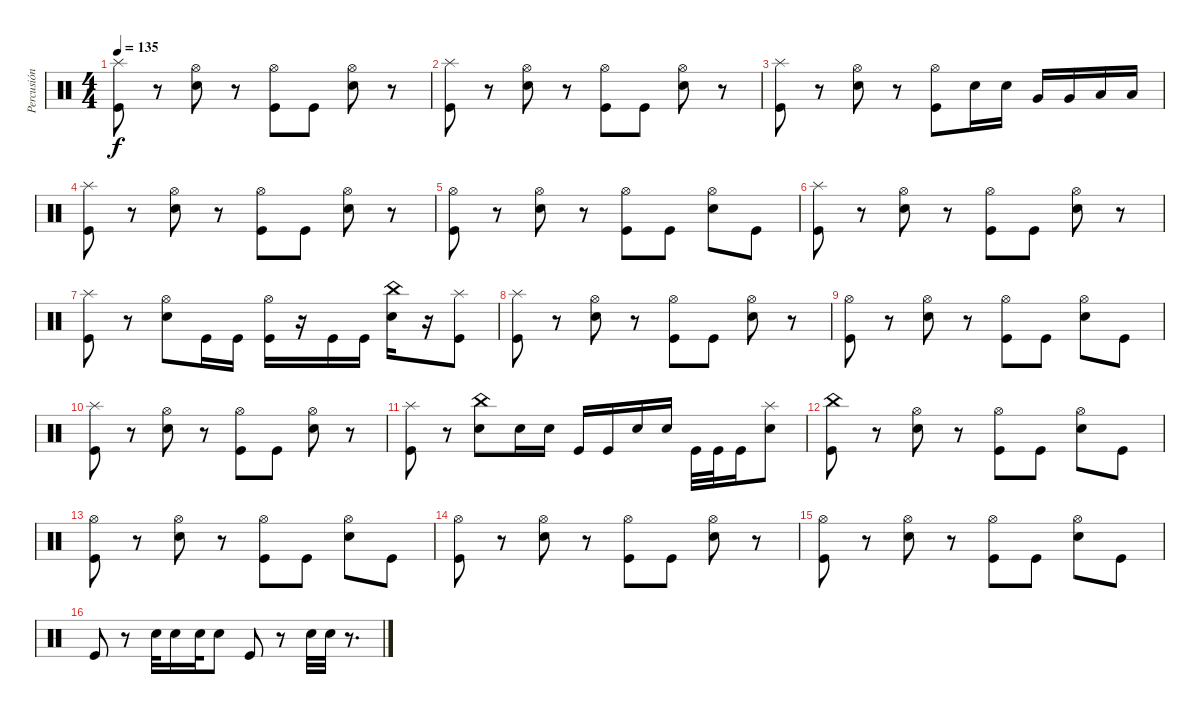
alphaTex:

\track ("Percusión" "Percusión") {instrument percussion}
\staff {score}
\articulation defaults
\ts (4 4)
\tempo 135
\clef neutral
\ks c
("Kick (hit)" "Splash (hit)").8{dy f} r.8 ("Electric Snare (hit)" "Hi-Hat (open)").8 r.8 ("Kick (hit)" "Hi-Hat (open)").8 "Kick (hit)".8 ("Electric Snare (hit)" "Hi-Hat (open)").8 r.8 |
("Kick (hit)" "Splash (hit)").8 r.8 ("Electric Snare (hit)" "Hi-Hat (open)").8 r.8 ("Kick (hit)" "Hi-Hat (open)").8 "Kick (hit)".8 ("Electric Snare (hit)" "Hi-Hat (open)").8 r.8 |
("Kick (hit)" "Splash (hit)").8 r.8 ("Electric Snare (hit)" "Hi-Hat (open)").8 r.8 ("Kick (hit)" "Hi-Hat (open)").8 "Electric Snare (hit)".16 "Electric Snare (hit)".16 "Very Low Tom (hit)".16 "Very Low Tom (hit)".16 "Low Tom (hit)".16 "Low Tom (hit)".16 |
("Kick (hit)" "Splash (hit)").8 r.8 ("Electric Snare (hit)" "Hi-Hat (open)").8 r.8 ("Kick (hit)" "Hi-Hat (open)").8 "Kick (hit)".8 ("Electric Snare (hit)" "Hi-Hat (open)").8 r.8 |
("Kick (hit)" "Hi-Hat (open)").8 r.8 ("Electric Snare (hit)" "Hi-Hat (open)").8 r.8 ("Kick (hit)" "Hi-Hat (open)").8 "Kick (hit)".8 ("Electric Snare (hit)" "Hi-Hat (open)").8 "Kick (hit)".8 |
("Kick (hit)" "Splash (hit)").8 r.8 ("Electric Snare (hit)" "Hi-Hat (open)").8 r.8 ("Kick (hit)" "Hi-Hat (open)").8 "Kick (hit)".8 ("Electric Snare (hit)" "Hi-Hat (open)").8 r.8 |
("Kick (hit)" "Splash (hit)").8 r.8 ("Electric Snare (hit)" "Hi-Hat (open)").8 "Kick (hit)".16 "Kick (hit)".16 ("Kick (hit)" "Hi-Hat (open)").16 r.16 "Kick (hit)".16 "Kick (hit)".16 ("Electric Snare (hit)" "China (hit)").16 r.16 ("Kick (hit)" "Splash (hit)").8 |
("Kick (hit)" "Splash (hit)").8 r.8 ("Electric Snare (hit)" "Hi-Hat (open)").8 r.8 ("Kick (hit)" "Hi-Hat (open)").8 "Kick (hit)".8 ("Electric Snare (hit)" "Hi-Hat (open)").8 r.8 |
("Kick (hit)" "Hi-Hat (open)").8 r.8 ("Electric Snare (hit)" "Hi-Hat (open)").8 r.8 ("Kick (hit)" "Hi-Hat (open)").8 "Kick (hit)".8 ("Electric Snare (hit)" "Hi-Hat (open)").8 "Kick (hit)".8 |
("Kick (hit)" "Splash (hit)").8 r.8 ("Electric Snare (hit)" "Hi-Hat (open)").8 r.8 ("Kick (hit)" "Hi-Hat (open)").8 "Kick (hit)".8 ("Electric Snare (hit)" "Hi-Hat (open)").8 r.8 |
("Kick (hit)" "Splash (hit)").8 r.8 ("Electric Snare (hit)" "China (hit)").8 "Electric Snare (hit)".16 "Electric Snare (hit)".16 "Kick (hit)".16 "Kick (hit)".16 "Electric Snare (hit)".16 "Electric Snare (hit)".16 "Kick (hit)".32 "Kick (hit)".32 "Kick (hit)".16 ("Electric Snare (hit)" "Splash (hit)").8 |
("Kick (hit)" "China (hit)").8 r.8 ("Electric Snare (hit)" "Hi-Hat (open)").8 r.8 ("Kick (hit)" "Hi-Hat (open)").8 "Kick (hit)".8 ("Electric Snare (hit)" "Hi-Hat (open)").8 "Kick (hit)".8 |
("Kick (hit)" "Hi-Hat (open)").8 r.8 ("Electric Snare (hit)" "Hi-Hat (open)").8 r.8 ("Kick (hit)" "Hi-Hat (open)").8 "Kick (hit)".8 ("Electric Snare (hit)" "Hi-Hat (open)").8 "Kick (hit)".8 |
("Kick (hit)" "Hi-Hat (open)").8 r.8 ("Electric Snare (hit)" "Hi-Hat (open)").8 r.8 ("Kick (hit)" "Hi-Hat (open)").8 "Kick (hit)".8 ("Electric Snare (hit)" "Hi-Hat (open)").8 r.8 |
("Kick (hit)" "Hi-Hat (open)").8 r.8 ("Electric Snare (hit)" "Hi-Hat (open)").8 r.8 ("Kick (hit)" "Hi-Hat (open)").8 "Kick (hit)".8 ("Electric Snare (hit)" "Hi-Hat (open)").8 "Kick (hit)".8 |
"Kick (hit)".8 r.8 "Electric Snare (hit)".32 "Electric Snare (hit)".16 "Electric Snare (hit)".32 "Electric Snare (hit)".8 "Kick (hit)".8 r.8 "Electric Snare (hit)".32 "Electric Snare (hit)".32 r.8{d}
